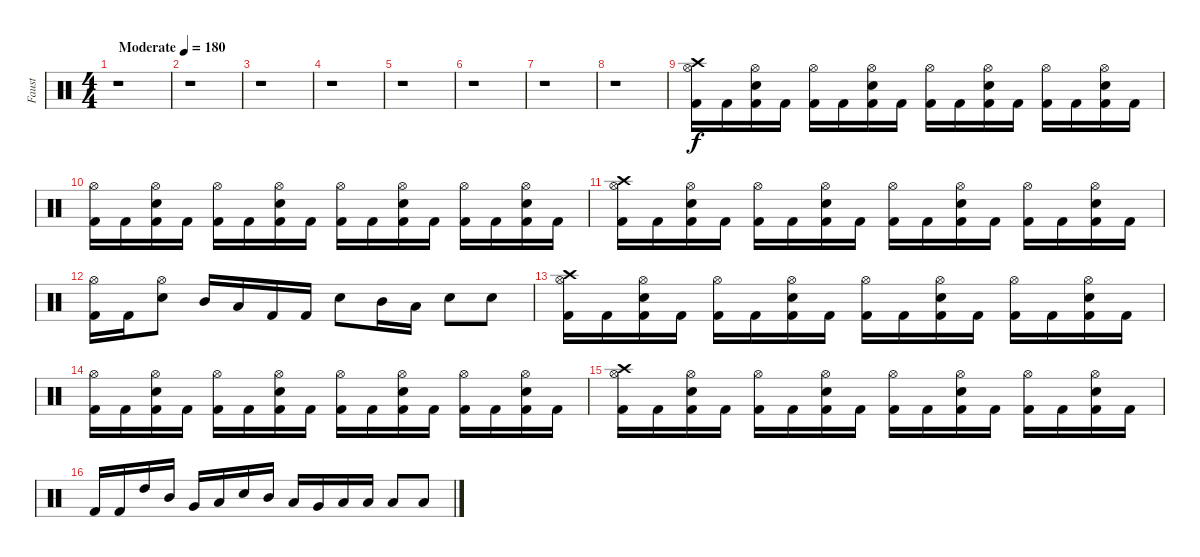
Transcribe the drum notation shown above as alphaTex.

\track ("Faust" "Faust") {instrument percussion}
\staff {score}
\articulation defaults
\ts (4 4)
\tempo (180 "Moderate")
\clef neutral
\ks c
r.1{dy f} |
r.1 |
r.1 |
r.1 |
r.1 |
r.1 |
r.1 |
r.1 |
("Crash high (hit)" "Hi-Hat (open)" "Kick (hit) 2").16 "Kick (hit) 2".16 ("Hi-Hat (open)" "Snare (hit) 2" "Kick (hit) 2").16 "Kick (hit) 2".16 ("Hi-Hat (open)" "Kick (hit) 2").16 "Kick (hit) 2".16 ("Hi-Hat (open)" "Snare (hit) 2" "Kick (hit) 2").16 "Kick (hit) 2".16 ("Hi-Hat (open)" "Kick (hit) 2").16 "Kick (hit) 2".16 ("Hi-Hat (open)" "Snare (hit) 2" "Kick (hit) 2").16 "Kick (hit) 2".16 ("Hi-Hat (open)" "Kick (hit) 2").16 "Kick (hit) 2".16 ("Hi-Hat (open)" "Snare (hit) 2" "Kick (hit) 2").16 "Kick (hit) 2".16 |
("Hi-Hat (open)" "Kick (hit) 2").16 "Kick (hit) 2".16 ("Hi-Hat (open)" "Snare (hit) 2" "Kick (hit) 2").16 "Kick (hit) 2".16 ("Hi-Hat (open)" "Kick (hit) 2").16 "Kick (hit) 2".16 ("Hi-Hat (open)" "Snare (hit) 2" "Kick (hit) 2").16 "Kick (hit) 2".16 ("Hi-Hat (open)" "Kick (hit) 2").16 "Kick (hit) 2".16 ("Hi-Hat (open)" "Snare (hit) 2" "Kick (hit) 2").16 "Kick (hit) 2".16 ("Hi-Hat (open)" "Kick (hit) 2").16 "Kick (hit) 2".16 ("Hi-Hat (open)" "Snare (hit) 2" "Kick (hit) 2").16 "Kick (hit) 2".16 |
("Crash high (hit)" "Hi-Hat (open)" "Kick (hit) 2").16 "Kick (hit) 2".16 ("Hi-Hat (open)" "Snare (hit) 2" "Kick (hit) 2").16 "Kick (hit) 2".16 ("Hi-Hat (open)" "Kick (hit) 2").16 "Kick (hit) 2".16 ("Hi-Hat (open)" "Snare (hit) 2" "Kick (hit) 2").16 "Kick (hit) 2".16 ("Hi-Hat (open)" "Kick (hit) 2").16 "Kick (hit) 2".16 ("Hi-Hat (open)" "Snare (hit) 2" "Kick (hit) 2").16 "Kick (hit) 2".16 ("Hi-Hat (open)" "Kick (hit) 2").16 "Kick (hit) 2".16 ("Hi-Hat (open)" "Snare (hit) 2" "Kick (hit) 2").16 "Kick (hit) 2".16 |
("Hi-Hat (open)" "Kick (hit) 2").16 "Kick (hit) 2".16 ("Hi-Hat (open)" "Snare (hit) 2").8 "Mid Tom (hit)".16 "Low Tom (hit)".16 "Kick (hit) 2".16 "Kick (hit) 2".16 "Snare (hit) 2".8 "Mid Tom (hit)".16 "Low Tom (hit)".16 "Snare (hit) 2".8 "Snare (hit) 2".8 |
("Crash high (hit)" "Hi-Hat (open)" "Kick (hit) 2").16 "Kick (hit) 2".16 ("Hi-Hat (open)" "Snare (hit) 2" "Kick (hit) 2").16 "Kick (hit) 2".16 ("Hi-Hat (open)" "Kick (hit) 2").16 "Kick (hit) 2".16 ("Hi-Hat (open)" "Snare (hit) 2" "Kick (hit) 2").16 "Kick (hit) 2".16 ("Hi-Hat (open)" "Kick (hit) 2").16 "Kick (hit) 2".16 ("Hi-Hat (open)" "Snare (hit) 2" "Kick (hit) 2").16 "Kick (hit) 2".16 ("Hi-Hat (open)" "Kick (hit) 2").16 "Kick (hit) 2".16 ("Hi-Hat (open)" "Snare (hit) 2" "Kick (hit) 2").16 "Kick (hit) 2".16 |
("Hi-Hat (open)" "Kick (hit) 2").16 "Kick (hit) 2".16 ("Hi-Hat (open)" "Snare (hit) 2" "Kick (hit) 2").16 "Kick (hit) 2".16 ("Hi-Hat (open)" "Kick (hit) 2").16 "Kick (hit) 2".16 ("Hi-Hat (open)" "Snare (hit) 2" "Kick (hit) 2").16 "Kick (hit) 2".16 ("Hi-Hat (open)" "Kick (hit) 2").16 "Kick (hit) 2".16 ("Hi-Hat (open)" "Snare (hit) 2" "Kick (hit) 2").16 "Kick (hit) 2".16 ("Hi-Hat (open)" "Kick (hit) 2").16 "Kick (hit) 2".16 ("Hi-Hat (open)" "Snare (hit) 2" "Kick (hit) 2").16 "Kick (hit) 2".16 |
("Crash high (hit)" "Hi-Hat (open)" "Kick (hit) 2").16 "Kick (hit) 2".16 ("Hi-Hat (open)" "Snare (hit) 2" "Kick (hit) 2").16 "Kick (hit) 2".16 ("Hi-Hat (open)" "Kick (hit) 2").16 "Kick (hit) 2".16 ("Hi-Hat (open)" "Snare (hit) 2" "Kick (hit) 2").16 "Kick (hit) 2".16 ("Hi-Hat (open)" "Kick (hit) 2").16 "Kick (hit) 2".16 ("Hi-Hat (open)" "Snare (hit) 2" "Kick (hit) 2").16 "Kick (hit) 2".16 ("Hi-Hat (open)" "Kick (hit) 2").16 "Kick (hit) 2".16 ("Hi-Hat (open)" "Snare (hit) 2" "Kick (hit) 2").16 "Kick (hit) 2".16 |
"Kick (hit) 2".16 "Kick (hit) 2".16 "High Tom (hit)".16 "Mid Tom (hit)".16 "Very Low Tom (hit)".16 "Low Tom (hit)".16 "Snare (hit) 2".16 "Mid Tom (hit)".16 "Low Tom (hit)".16 "Very Low Tom (hit)".16 "Low Floor Tom (hit)".16 "Low Floor Tom (hit)".16 "Low Tom (hit)".8 "Low Tom (hit)".8
